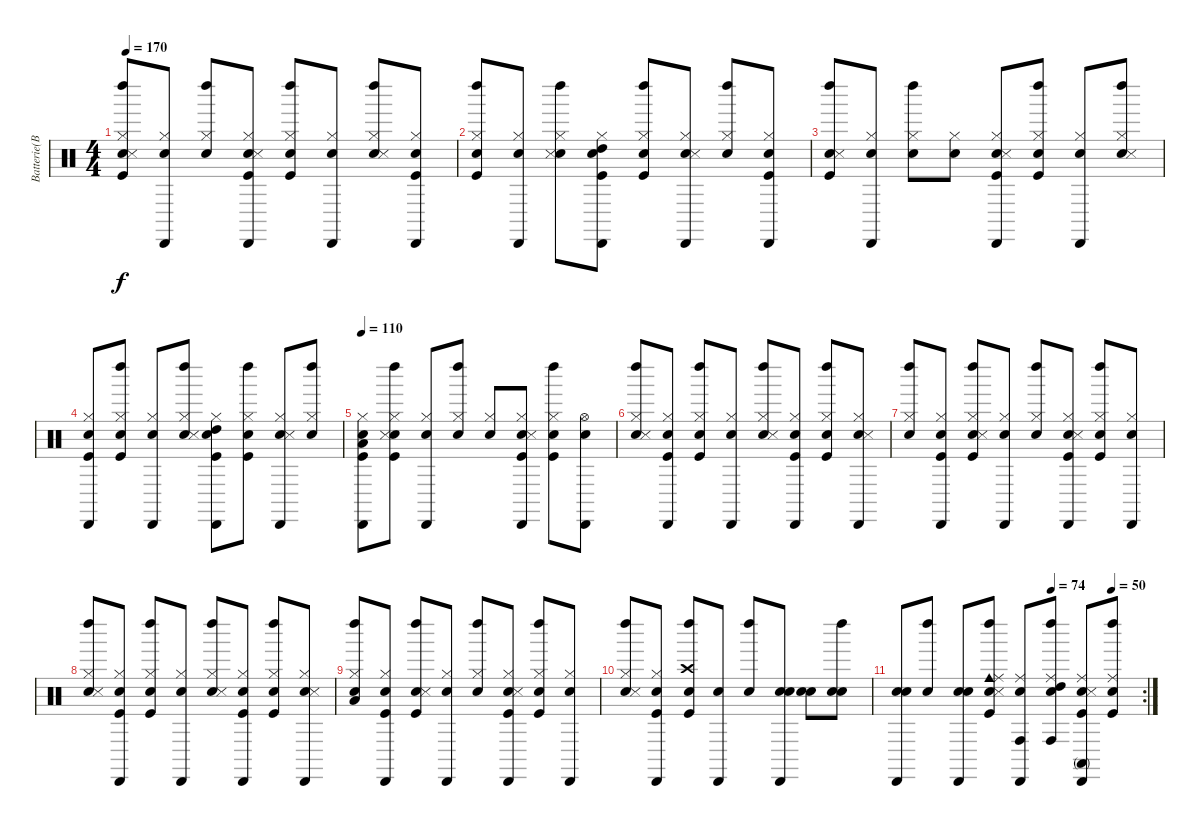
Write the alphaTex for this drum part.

\track ("Batterie(BB)" "Batterie(B") {instrument percussion}
\staff {score}
\articulation defaults
\ts (4 4)
\tempo 170
\clef neutral
\ks c
("Snare (hit)" "Kick (hit)" "Hi-Hat (closed)" "Snare (side stick) 3" "Left Maraca (hit)").8{dy f} ("Snare (hit)" "Hi-Hat (closed)" "Cabasa (hit)").8 ("Snare (hit)" "Hi-Hat (closed)" "Left Maraca (hit)").8 ("Snare (hit)" "Kick (hit)" "Hi-Hat (closed)" "Snare (side stick) 3" "Cabasa (hit)").8 ("Snare (hit)" "Kick (hit)" "Hi-Hat (closed)" "Left Maraca (hit)").8 ("Snare (hit)" "Hi-Hat (closed)" "Cabasa (hit)").8 ("Snare (hit)" "Hi-Hat (closed)" "Snare (side stick) 3" "Left Maraca (hit)").8 ("Snare (hit)" "Kick (hit)" "Hi-Hat (closed)" "Cabasa (hit)").8 |
("Snare (hit)" "Kick (hit)" "Hi-Hat (closed)" "Left Maraca (hit)").8 ("Snare (hit)" "Hi-Hat (closed)" "Cabasa (hit)").8 ("Snare (hit)" "Hi-Hat (closed)" "Snare (side stick) 3" "Left Maraca (hit)").8 ("Snare (hit)" "Kick (hit)" "Hi-Hat (closed)" "High Tom (hit)" "Cabasa (hit)").8 ("Snare (hit)" "Kick (hit)" "Hi-Hat (closed)" "Left Maraca (hit)").8 ("Snare (hit)" "Hi-Hat (closed)" "Snare (side stick) 3" "Cabasa (hit)").8 ("Snare (hit)" "Hi-Hat (closed)" "Left Maraca (hit)").8 ("Snare (hit)" "Kick (hit)" "Hi-Hat (closed)" "Cabasa (hit)").8 |
("Snare (hit)" "Kick (hit)" "Snare (side stick) 3" "Left Maraca (hit)").8 ("Snare (hit)" "Hi-Hat (closed)" "Cabasa (hit)").8 ("Snare (hit)" "Hi-Hat (closed)" "Left Maraca (hit)").8 ("Snare (hit)" "Hi-Hat (closed)").8 ("Snare (hit)" "Kick (hit)" "Hi-Hat (closed)" "Snare (side stick) 3" "Cabasa (hit)").8 ("Snare (hit)" "Kick (hit)" "Hi-Hat (closed)" "Left Maraca (hit)").8 ("Snare (hit)" "Hi-Hat (closed)" "Cabasa (hit)").8 ("Snare (hit)" "Hi-Hat (closed)" "Snare (side stick) 3" "Left Maraca (hit)").8 |
("Snare (hit)" "Kick (hit)" "Hi-Hat (closed)" "Cabasa (hit)").8{volume 10} ("Snare (hit)" "Kick (hit)" "Hi-Hat (closed)" "Left Maraca (hit)").8 ("Snare (hit)" "Hi-Hat (closed)" "Cabasa (hit)").8 ("Snare (hit)" "Hi-Hat (closed)" "Snare (side stick) 3" "Left Maraca (hit)").8 ("Snare (hit)" "Kick (hit)" "Hi-Hat (closed)" "High Tom (hit)" "Cabasa (hit)").8 ("Snare (hit)" "Kick (hit)" "Hi-Hat (closed)" "Left Maraca (hit)").8 ("Snare (hit)" "Hi-Hat (closed)" "Snare (side stick) 3" "Cabasa (hit)").8 ("Snare (hit)" "Hi-Hat (closed)" "Left Maraca (hit)").8 |
\tempo 141
\tempo 110
("Snare (hit)" "Kick (hit)" "Hi-Hat (closed)" "Low Tom (hit)" "Cabasa (hit)").8 ("Snare (hit)" "Kick (hit)" "Hi-Hat (closed)" "Snare (side stick) 3" "Left Maraca (hit)").8 ("Snare (hit)" "Hi-Hat (closed)" "Cabasa (hit)").8 ("Snare (hit)" "Hi-Hat (closed)" "Left Maraca (hit)").8 ("Snare (hit)" "Hi-Hat (closed)").8 ("Snare (hit)" "Kick (hit)" "Hi-Hat (closed)" "Snare (side stick) 3" "Cabasa (hit)").8 ("Snare (hit)" "Kick (hit)" "Hi-Hat (closed)" "Left Maraca (hit)").8 ("Snare (hit)" "Hi-Hat (open)" "Cabasa (hit)").8 |
("Snare (hit)" "Hi-Hat (closed)" "Snare (side stick) 3" "Left Maraca (hit)").8 ("Snare (hit)" "Kick (hit)" "Hi-Hat (closed)" "Cabasa (hit)").8 ("Snare (hit)" "Kick (hit)" "Hi-Hat (closed)" "Left Maraca (hit)").8 ("Snare (hit)" "Hi-Hat (closed)" "Cabasa (hit)").8 ("Snare (hit)" "Hi-Hat (closed)" "Snare (side stick) 3" "Left Maraca (hit)").8 ("Snare (hit)" "Kick (hit)" "Hi-Hat (closed)" "Cabasa (hit)").8 ("Snare (hit)" "Kick (hit)" "Hi-Hat (closed)" "Left Maraca (hit)").8 ("Snare (hit)" "Hi-Hat (closed)" "Snare (side stick) 3" "Cabasa (hit)").8 |
("Snare (hit)" "Hi-Hat (closed)" "Left Maraca (hit)").8 ("Snare (hit)" "Kick (hit)" "Hi-Hat (closed)" "Cabasa (hit)").8 ("Snare (hit)" "Kick (hit)" "Hi-Hat (closed)" "Snare (side stick) 3" "Left Maraca (hit)").8 ("Snare (hit)" "Hi-Hat (closed)" "Cabasa (hit)").8 ("Snare (hit)" "Hi-Hat (closed)" "Left Maraca (hit)").8 ("Snare (hit)" "Kick (hit)" "Hi-Hat (closed)" "Snare (side stick) 3" "Cabasa (hit)").8 ("Snare (hit)" "Kick (hit)" "Hi-Hat (closed)" "Left Maraca (hit)").8 ("Snare (hit)" "Hi-Hat (closed)" "Cabasa (hit)").8 |
("Snare (hit)" "Hi-Hat (closed)" "Snare (side stick) 3" "Left Maraca (hit)").8 ("Snare (hit)" "Kick (hit)" "Hi-Hat (closed)" "Cabasa (hit)").8 ("Snare (hit)" "Kick (hit)" "Hi-Hat (closed)" "Left Maraca (hit)").8 ("Snare (hit)" "Hi-Hat (closed)" "Cabasa (hit)").8 ("Snare (hit)" "Hi-Hat (closed)" "Snare (side stick) 3" "Left Maraca (hit)").8 ("Snare (hit)" "Kick (hit)" "Hi-Hat (closed)" "Cabasa (hit)").8 ("Snare (hit)" "Kick (hit)" "Hi-Hat (closed)" "Left Maraca (hit)").8 ("Snare (hit)" "Hi-Hat (closed)" "Snare (side stick) 3" "Cabasa (hit)").8 |
("Snare (hit)" "Hi-Hat (closed)" "Low Tom (hit)" "Left Maraca (hit)").8 ("Snare (hit)" "Kick (hit)" "Hi-Hat (closed)" "Cabasa (hit)").8 ("Snare (hit)" "Kick (hit)" "Snare (side stick) 3" "Left Maraca (hit)").8 ("Snare (hit)" "Hi-Hat (closed)" "Cabasa (hit)").8 ("Snare (hit)" "Hi-Hat (closed)" "Left Maraca (hit)").8 ("Snare (hit)" "Kick (hit)" "Hi-Hat (closed)" "Snare (side stick) 3" "Cabasa (hit)").8 ("Snare (hit)" "Kick (hit)" "Hi-Hat (closed)" "Left Maraca (hit)").8 ("Snare (hit)" "Hi-Hat (closed)" "Cabasa (hit)").8 |
("Snare (hit)" "Hi-Hat (closed)" "Snare (side stick) 3" "Left Maraca (hit)").8 ("Snare (hit)" "Kick (hit)" "Hi-Hat (closed)" "Cabasa (hit)").8 ("Snare (hit)" "Kick (hit)" "Crash high (hit)" "Left Maraca (hit)").8 ("Snare (hit)" "Cabasa (hit)").8 ("Snare (hit)" "Left Maraca (hit)").8 ("Snare (hit)" "Snare (hit) 2" "Cabasa (hit)").8 ("Snare (hit)" "Snare (hit) 2").8 ("Snare (hit)" "Snare (hit) 2" "Left Maraca (hit)").8 |
\rc 2
\tempo (74 0.625)
\tempo (50 0.875)
("Snare (hit)" "Snare (hit) 2" "Cabasa (hit)").8 ("Snare (hit)" "Left Maraca (hit)").8 ("Snare (hit)" "Snare (hit) 2" "Cabasa (hit)").8 ("Snare (hit)" "Kick (hit)" "Snare (side stick) 3" "Cowbell medium (hit)" "Ride (middle)" "Left Maraca (hit)").8 ("Snare (hit)" "Ride (middle)" "Conga high (hit)" "Cabasa (hit)").8 ("Snare (hit)" "Ride (middle)" "High Tom (hit)" "Conga high (hit)" "Left Maraca (hit)").8 ("Snare (hit)" "Kick (hit)" "Snare (side stick) 3" "Ride (middle)" "Conga high (mute)" "Cabasa (hit)").8 ("Snare (hit)" "Kick (hit)" "Ride (middle)" "Left Maraca (hit)").8
